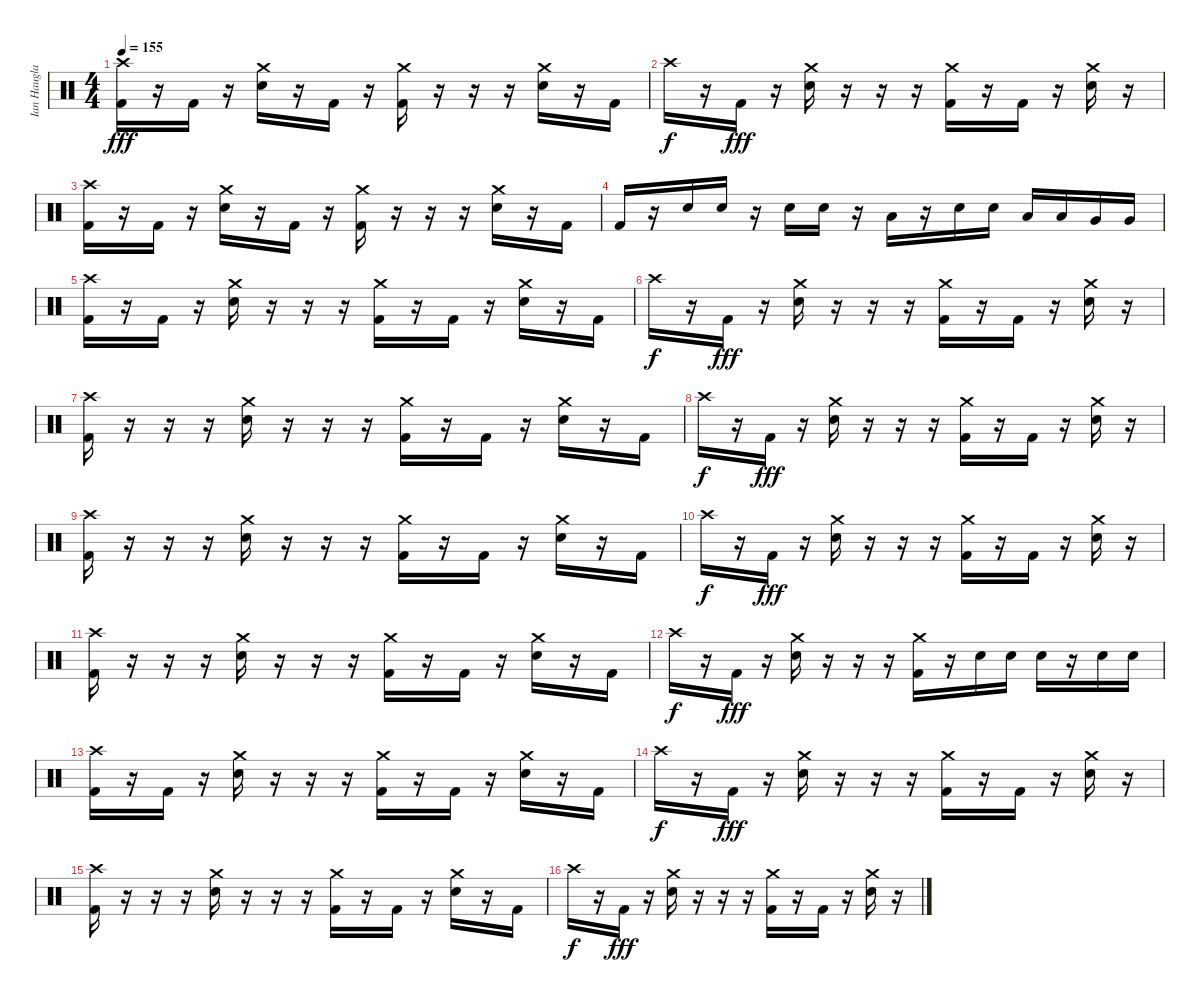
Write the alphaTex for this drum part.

\track ("Ian Haugland" "Ian Haugla") {instrument percussion}
\staff {score}
\articulation defaults
\ts (4 4)
\tempo 155
\clef neutral
\ks c
("Crash high (hit)" "Kick (hit) 2").16{dy fff} r.16 "Kick (hit) 2".16 r.16 ("Crash medium (hit)" "Electric Snare (hit)").16 r.16 "Kick (hit) 2".16 r.16 ("Crash medium (hit)" "Kick (hit) 2").16 r.16 r.16 r.16 ("Crash medium (hit)" "Electric Snare (hit)").16 r.16 "Kick (hit) 2".16 |
"Crash high (hit)".16{dy f} r.16 "Kick (hit) 2".16{dy fff} r.16 ("Crash medium (hit)" "Electric Snare (hit)").16 r.16 r.16 r.16 ("Crash medium (hit)" "Kick (hit) 2").16 r.16 "Kick (hit) 2".16 r.16 ("Crash medium (hit)" "Electric Snare (hit)").16 r.16 |
("Crash high (hit)" "Kick (hit) 2").16 r.16 "Kick (hit) 2".16 r.16 ("Crash medium (hit)" "Electric Snare (hit)").16 r.16 "Kick (hit) 2".16 r.16 ("Crash medium (hit)" "Kick (hit) 2").16 r.16 r.16 r.16 ("Crash medium (hit)" "Electric Snare (hit)").16 r.16 "Kick (hit) 2".16 |
"Kick (hit) 2".16 r.16 "Electric Snare (hit)".16 "Electric Snare (hit)".16 r.16 "Electric Snare (hit)".16 "Electric Snare (hit)".16 r.16 "Low Tom (hit)".16 r.16 "Electric Snare (hit)".16 "Electric Snare (hit)".16 "Low Tom (hit)".16 "Low Tom (hit)".16 "Very Low Tom (hit)".16 "Very Low Tom (hit)".16 |
("Crash high (hit)" "Kick (hit) 2").16 r.16 "Kick (hit) 2".16 r.16 ("Crash medium (hit)" "Electric Snare (hit)").16 r.16 r.16 r.16 ("Crash medium (hit)" "Kick (hit) 2").16 r.16 "Kick (hit) 2".16 r.16 ("Crash medium (hit)" "Electric Snare (hit)").16 r.16 "Kick (hit) 2".16 |
"Crash high (hit)".16{dy f} r.16 "Kick (hit) 2".16{dy fff} r.16 ("Crash medium (hit)" "Electric Snare (hit)").16 r.16 r.16 r.16 ("Crash medium (hit)" "Kick (hit) 2").16 r.16 "Kick (hit) 2".16 r.16 ("Crash medium (hit)" "Electric Snare (hit)").16 r.16 |
("Crash high (hit)" "Kick (hit) 2").16 r.16 r.16 r.16 ("Crash medium (hit)" "Electric Snare (hit)").16 r.16 r.16 r.16 ("Crash medium (hit)" "Kick (hit) 2").16 r.16 "Kick (hit) 2".16 r.16 ("Crash medium (hit)" "Electric Snare (hit)").16 r.16 "Kick (hit) 2".16 |
"Crash high (hit)".16{dy f} r.16 "Kick (hit) 2".16{dy fff} r.16 ("Crash medium (hit)" "Electric Snare (hit)").16 r.16 r.16 r.16 ("Crash medium (hit)" "Kick (hit) 2").16 r.16 "Kick (hit) 2".16 r.16 ("Crash medium (hit)" "Electric Snare (hit)").16 r.16 |
("Crash high (hit)" "Kick (hit) 2").16 r.16 r.16 r.16 ("Crash medium (hit)" "Electric Snare (hit)").16 r.16 r.16 r.16 ("Crash medium (hit)" "Kick (hit) 2").16 r.16 "Kick (hit) 2".16 r.16 ("Crash medium (hit)" "Electric Snare (hit)").16 r.16 "Kick (hit) 2".16 |
"Crash high (hit)".16{dy f} r.16 "Kick (hit) 2".16{dy fff} r.16 ("Crash medium (hit)" "Electric Snare (hit)").16 r.16 r.16 r.16 ("Crash medium (hit)" "Kick (hit) 2").16 r.16 "Kick (hit) 2".16 r.16 ("Crash medium (hit)" "Electric Snare (hit)").16 r.16 |
("Crash high (hit)" "Kick (hit) 2").16 r.16 r.16 r.16 ("Crash medium (hit)" "Electric Snare (hit)").16 r.16 r.16 r.16 ("Crash medium (hit)" "Kick (hit) 2").16 r.16 "Kick (hit) 2".16 r.16 ("Crash medium (hit)" "Electric Snare (hit)").16 r.16 "Kick (hit) 2".16 |
"Crash high (hit)".16{dy f} r.16 "Kick (hit) 2".16{dy fff} r.16 ("Crash medium (hit)" "Electric Snare (hit)").16 r.16 r.16 r.16 ("Crash medium (hit)" "Kick (hit) 2").16 r.16 "Electric Snare (hit)".16 "Electric Snare (hit)".16 "Electric Snare (hit)".16 r.16 "Electric Snare (hit)".16 "Electric Snare (hit)".16 |
("Crash high (hit)" "Kick (hit) 2").16 r.16 "Kick (hit) 2".16 r.16 ("Crash medium (hit)" "Electric Snare (hit)").16 r.16 r.16 r.16 ("Crash medium (hit)" "Kick (hit) 2").16 r.16 "Kick (hit) 2".16 r.16 ("Crash medium (hit)" "Electric Snare (hit)").16 r.16 "Kick (hit) 2".16 |
"Crash high (hit)".16{dy f} r.16 "Kick (hit) 2".16{dy fff} r.16 ("Crash medium (hit)" "Electric Snare (hit)").16 r.16 r.16 r.16 ("Crash medium (hit)" "Kick (hit) 2").16 r.16 "Kick (hit) 2".16 r.16 ("Crash medium (hit)" "Electric Snare (hit)").16 r.16 |
("Crash high (hit)" "Kick (hit) 2").16 r.16 r.16 r.16 ("Crash medium (hit)" "Electric Snare (hit)").16 r.16 r.16 r.16 ("Crash medium (hit)" "Kick (hit) 2").16 r.16 "Kick (hit) 2".16 r.16 ("Crash medium (hit)" "Electric Snare (hit)").16 r.16 "Kick (hit) 2".16 |
"Crash high (hit)".16{dy f} r.16 "Kick (hit) 2".16{dy fff} r.16 ("Crash medium (hit)" "Electric Snare (hit)").16 r.16 r.16 r.16 ("Crash medium (hit)" "Kick (hit) 2").16 r.16 "Kick (hit) 2".16 r.16 ("Crash medium (hit)" "Electric Snare (hit)").16 r.16
